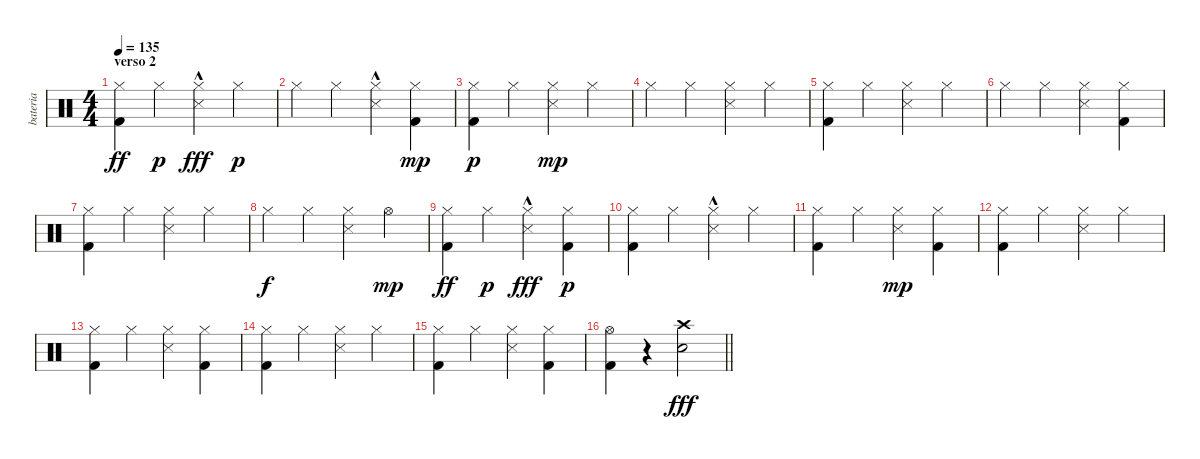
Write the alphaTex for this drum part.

\track ("bateria" "bateria") {instrument percussion}
\staff {score}
\articulation defaults
\ts (4 4)
\section ("" "verso 2")
\tempo 135
\clef neutral
\ks c
("Hi-Hat (closed)" "Kick (hit) 2").4{dy ff} "Hi-Hat (closed)".4{dy p} ("Hi-Hat (closed)" "Snare (side stick) 3"{hac}).4{dy fff} "Hi-Hat (closed)".4{dy p} |
"Hi-Hat (closed)".4 "Hi-Hat (closed)".4 ("Hi-Hat (closed)" "Snare (side stick) 3"{hac}).4 ("Hi-Hat (closed)" "Kick (hit) 2").4{dy mp} |
("Hi-Hat (closed)" "Kick (hit) 2").4{dy p} "Hi-Hat (closed)".4 ("Hi-Hat (closed)" "Snare (side stick) 3").4{dy mp} "Hi-Hat (closed)".4 |
"Hi-Hat (closed)".4 "Hi-Hat (closed)".4 ("Hi-Hat (closed)" "Snare (side stick) 3").4 "Hi-Hat (closed)".4 |
("Hi-Hat (closed)" "Kick (hit) 2").4 "Hi-Hat (closed)".4 ("Hi-Hat (closed)" "Snare (side stick) 3").4 "Hi-Hat (closed)".4 |
"Hi-Hat (closed)".4 "Hi-Hat (closed)".4 ("Hi-Hat (closed)" "Snare (side stick) 3").4 ("Hi-Hat (closed)" "Kick (hit) 2").4 |
("Hi-Hat (closed)" "Kick (hit) 2").4 "Hi-Hat (closed)".4 ("Hi-Hat (closed)" "Snare (side stick) 3").4 "Hi-Hat (closed)".4 |
"Hi-Hat (closed)".4{dy f} "Hi-Hat (closed)".4 ("Hi-Hat (closed)" "Snare (side stick) 3").4 "Hi-Hat (open)".4{dy mp} |
("Hi-Hat (closed)" "Kick (hit) 2").4{dy ff} "Hi-Hat (closed)".4{dy p} ("Hi-Hat (closed)" "Snare (side stick) 3"{hac}).4{dy fff} ("Hi-Hat (closed)" "Kick (hit) 2").4{dy p} |
("Hi-Hat (closed)" "Kick (hit) 2").4 "Hi-Hat (closed)".4 ("Hi-Hat (closed)" "Snare (side stick) 3"{hac}).4 "Hi-Hat (closed)".4 |
("Hi-Hat (closed)" "Kick (hit) 2").4 "Hi-Hat (closed)".4 ("Hi-Hat (closed)" "Snare (side stick) 3").4{dy mp} ("Hi-Hat (closed)" "Kick (hit) 2").4 |
("Hi-Hat (closed)" "Kick (hit) 2").4 "Hi-Hat (closed)".4 ("Hi-Hat (closed)" "Snare (side stick) 3").4 "Hi-Hat (closed)".4 |
("Hi-Hat (closed)" "Kick (hit) 2").4 "Hi-Hat (closed)".4 ("Hi-Hat (closed)" "Snare (side stick) 3").4 ("Hi-Hat (closed)" "Kick (hit) 2").4 |
("Hi-Hat (closed)" "Kick (hit) 2").4 "Hi-Hat (closed)".4 ("Hi-Hat (closed)" "Snare (side stick) 3").4 "Hi-Hat (closed)".4 |
("Hi-Hat (closed)" "Kick (hit) 2").4 "Hi-Hat (closed)".4 ("Hi-Hat (closed)" "Snare (side stick) 3").4 ("Hi-Hat (closed)" "Kick (hit) 2").4 |
\barLineRight lightlight
("Hi-Hat (open)" "Kick (hit) 2").4 r.4 ("Crash high (hit)" "Snare (hit) 2").2{dy fff}
